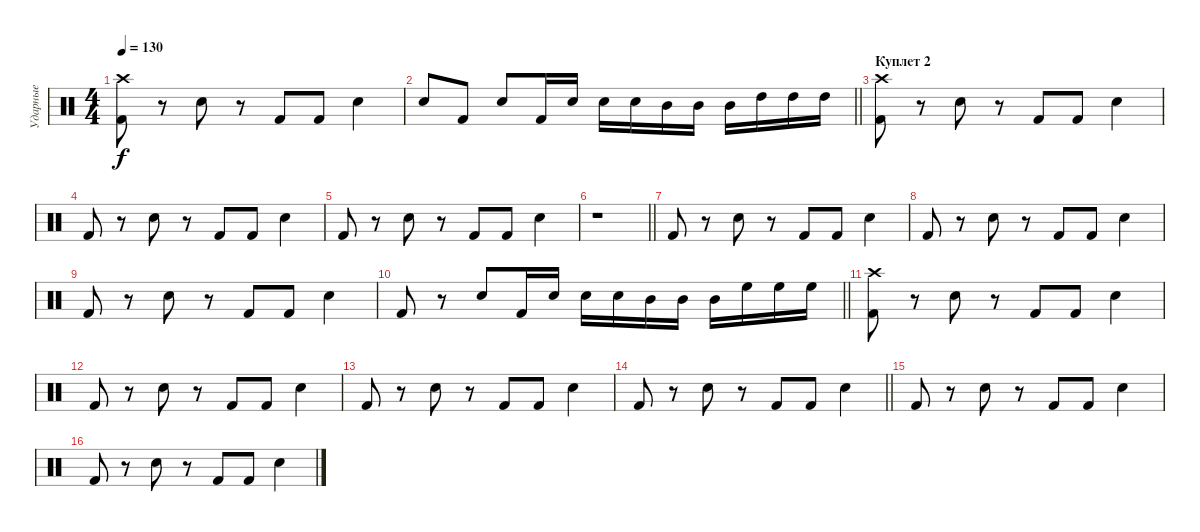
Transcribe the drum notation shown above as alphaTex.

\track ("Ударные" "Ударные") {instrument percussion}
\staff {score}
\articulation defaults
\ts (4 4)
\tempo 130
\clef neutral
\ks c
("Crash high (hit)" "Kick (hit) 2").8{dy f} r.8 "Snare (hit) 2".8 r.8 "Kick (hit) 2".8 "Kick (hit) 2".8 "Snare (hit) 2".4 |
\barLineRight lightlight "Snare (hit) 2".8 "Kick (hit) 2".8 "Snare (hit) 2".8 "Kick (hit) 2".16 "Snare (hit) 2".16 "Snare (hit) 2".16 "Snare (hit) 2".16 "Mid Tom (hit)".16 "Mid Tom (hit)".16 "Mid Tom (hit)".16 "High Tom (hit)".16 "High Tom (hit)".16 "High Tom (hit)".16
|
\section ("" "Куплет 2")
("Crash high (hit)" "Kick (hit) 2").8 r.8 "Snare (hit) 2".8 r.8 "Kick (hit) 2".8 "Kick (hit) 2".8 "Snare (hit) 2".4 |
"Kick (hit) 2".8 r.8 "Snare (hit) 2".8 r.8 "Kick (hit) 2".8 "Kick (hit) 2".8 "Snare (hit) 2".4 |
"Kick (hit) 2".8 r.8 "Snare (hit) 2".8 r.8 "Kick (hit) 2".8 "Kick (hit) 2".8 "Snare (hit) 2".4 |
\barLineRight lightlight
r.1 |
"Kick (hit) 2".8 r.8 "Snare (hit) 2".8 r.8 "Kick (hit) 2".8 "Kick (hit) 2".8 "Snare (hit) 2".4 |
"Kick (hit) 2".8 r.8 "Snare (hit) 2".8 r.8 "Kick (hit) 2".8 "Kick (hit) 2".8 "Snare (hit) 2".4 |
"Kick (hit) 2".8 r.8 "Snare (hit) 2".8 r.8 "Kick (hit) 2".8 "Kick (hit) 2".8 "Snare (hit) 2".4 |
\barLineRight lightlight "Kick (hit) 2".8
r.8 "Snare (hit) 2".8 "Kick (hit) 2".16 "Snare (hit) 2".16 "Snare (hit) 2".16 "Snare (hit) 2".16 "Mid Tom (hit)".16 "Mid Tom (hit)".16 "Mid Tom (hit)".16 "High Floor Tom (hit)".16 "High Floor Tom (hit)".16 "High Floor Tom (hit)".16 |
("Crash high (hit)" "Kick (hit) 2").8 r.8 "Snare (hit) 2".8 r.8 "Kick (hit) 2".8 "Kick (hit) 2".8 "Snare (hit) 2".4 |
"Kick (hit) 2".8 r.8 "Snare (hit) 2".8 r.8 "Kick (hit) 2".8 "Kick (hit) 2".8 "Snare (hit) 2".4 |
"Kick (hit) 2".8 r.8 "Snare (hit) 2".8 r.8 "Kick (hit) 2".8 "Kick (hit) 2".8 "Snare (hit) 2".4 |
\barLineRight lightlight "Kick (hit) 2".8
r.8 "Snare (hit) 2".8 r.8 "Kick (hit) 2".8 "Kick (hit) 2".8 "Snare (hit) 2".4 |
"Kick (hit) 2".8 r.8 "Snare (hit) 2".8 r.8 "Kick (hit) 2".8 "Kick (hit) 2".8 "Snare (hit) 2".4 |
"Kick (hit) 2".8 r.8 "Snare (hit) 2".8 r.8 "Kick (hit) 2".8 "Kick (hit) 2".8 "Snare (hit) 2".4
